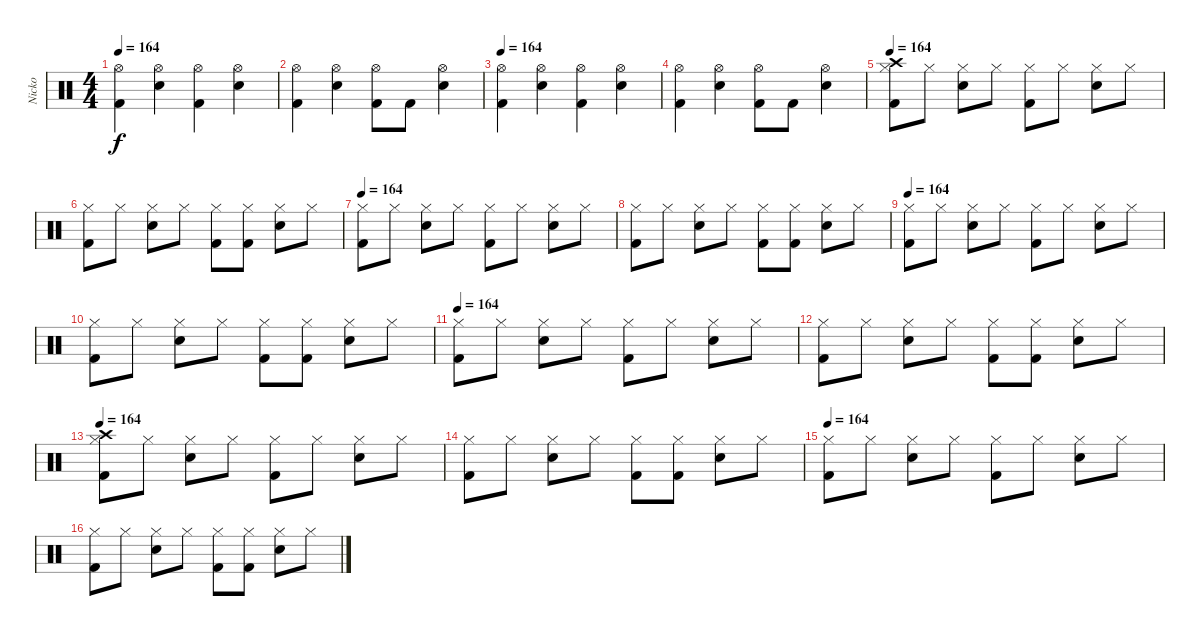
\track ("Nicko" "Nicko") {instrument percussion}
\staff {score}
\articulation defaults
\ts (4 4)
\tempo 164
\clef neutral
\ks c
("Hi-Hat (open)" "Kick (hit) 2").4{dy f} ("Hi-Hat (open)" "Snare (hit) 2").4 ("Hi-Hat (open)" "Kick (hit) 2").4 ("Hi-Hat (open)" "Snare (hit) 2").4 |
("Hi-Hat (open)" "Kick (hit) 2").4 ("Hi-Hat (open)" "Snare (hit) 2").4 ("Hi-Hat (open)" "Kick (hit) 2").8 "Kick (hit) 2".8 ("Hi-Hat (open)" "Snare (hit) 2").4 |
\tempo 164
("Hi-Hat (open)" "Kick (hit) 2").4 ("Hi-Hat (open)" "Snare (hit) 2").4 ("Hi-Hat (open)" "Kick (hit) 2").4 ("Hi-Hat (open)" "Snare (hit) 2").4 |
("Hi-Hat (open)" "Kick (hit) 2").4 ("Hi-Hat (open)" "Snare (hit) 2").4 ("Hi-Hat (open)" "Kick (hit) 2").8 "Kick (hit) 2".8 ("Hi-Hat (open)" "Snare (hit) 2").4 |
\tempo 164
("Hi-Hat (closed)" "Crash high (hit)" "Kick (hit) 2").8 "Hi-Hat (closed)".8 ("Hi-Hat (closed)" "Snare (hit) 2").8 "Hi-Hat (closed)".8 ("Hi-Hat (closed)" "Kick (hit) 2").8 "Hi-Hat (closed)".8 ("Hi-Hat (closed)" "Snare (hit) 2").8 "Hi-Hat (closed)".8 |
("Hi-Hat (closed)" "Kick (hit) 2").8 "Hi-Hat (closed)".8 ("Hi-Hat (closed)" "Snare (hit) 2").8 "Hi-Hat (closed)".8 ("Hi-Hat (closed)" "Kick (hit) 2").8 ("Hi-Hat (closed)" "Kick (hit) 2").8 ("Hi-Hat (closed)" "Snare (hit) 2").8 "Hi-Hat (closed)".8 |
\tempo 164
("Hi-Hat (closed)" "Kick (hit) 2").8 "Hi-Hat (closed)".8 ("Hi-Hat (closed)" "Snare (hit) 2").8 "Hi-Hat (closed)".8 ("Hi-Hat (closed)" "Kick (hit) 2").8 "Hi-Hat (closed)".8 ("Hi-Hat (closed)" "Snare (hit) 2").8 "Hi-Hat (closed)".8 |
("Hi-Hat (closed)" "Kick (hit) 2").8 "Hi-Hat (closed)".8 ("Hi-Hat (closed)" "Snare (hit) 2").8 "Hi-Hat (closed)".8 ("Hi-Hat (closed)" "Kick (hit) 2").8 ("Hi-Hat (closed)" "Kick (hit) 2").8 ("Hi-Hat (closed)" "Snare (hit) 2").8 "Hi-Hat (closed)".8 |
\tempo 164
("Hi-Hat (closed)" "Kick (hit) 2").8 "Hi-Hat (closed)".8 ("Hi-Hat (closed)" "Snare (hit) 2").8 "Hi-Hat (closed)".8 ("Hi-Hat (closed)" "Kick (hit) 2").8 "Hi-Hat (closed)".8 ("Hi-Hat (closed)" "Snare (hit) 2").8 "Hi-Hat (closed)".8 |
("Hi-Hat (closed)" "Kick (hit) 2").8 "Hi-Hat (closed)".8 ("Hi-Hat (closed)" "Snare (hit) 2").8 "Hi-Hat (closed)".8 ("Hi-Hat (closed)" "Kick (hit) 2").8 ("Hi-Hat (closed)" "Kick (hit) 2").8 ("Hi-Hat (closed)" "Snare (hit) 2").8 "Hi-Hat (closed)".8 |
\tempo 164
("Hi-Hat (closed)" "Kick (hit) 2").8 "Hi-Hat (closed)".8 ("Hi-Hat (closed)" "Snare (hit) 2").8 "Hi-Hat (closed)".8 ("Hi-Hat (closed)" "Kick (hit) 2").8 "Hi-Hat (closed)".8 ("Hi-Hat (closed)" "Snare (hit) 2").8 "Hi-Hat (closed)".8 |
("Hi-Hat (closed)" "Kick (hit) 2").8 "Hi-Hat (closed)".8 ("Hi-Hat (closed)" "Snare (hit) 2").8 "Hi-Hat (closed)".8 ("Hi-Hat (closed)" "Kick (hit) 2").8 ("Hi-Hat (closed)" "Kick (hit) 2").8 ("Hi-Hat (closed)" "Snare (hit) 2").8 "Hi-Hat (closed)".8 |
\tempo 164
("Hi-Hat (closed)" "Crash high (hit)" "Kick (hit) 2").8 "Hi-Hat (closed)".8 ("Hi-Hat (closed)" "Snare (hit) 2").8 "Hi-Hat (closed)".8 ("Hi-Hat (closed)" "Kick (hit) 2").8 "Hi-Hat (closed)".8 ("Hi-Hat (closed)" "Snare (hit) 2").8 "Hi-Hat (closed)".8 |
("Hi-Hat (closed)" "Kick (hit) 2").8 "Hi-Hat (closed)".8 ("Hi-Hat (closed)" "Snare (hit) 2").8 "Hi-Hat (closed)".8 ("Hi-Hat (closed)" "Kick (hit) 2").8 ("Hi-Hat (closed)" "Kick (hit) 2").8 ("Hi-Hat (closed)" "Snare (hit) 2").8 "Hi-Hat (closed)".8 |
\tempo 164
("Hi-Hat (closed)" "Kick (hit) 2").8 "Hi-Hat (closed)".8 ("Hi-Hat (closed)" "Snare (hit) 2").8 "Hi-Hat (closed)".8 ("Hi-Hat (closed)" "Kick (hit) 2").8 "Hi-Hat (closed)".8 ("Hi-Hat (closed)" "Snare (hit) 2").8 "Hi-Hat (closed)".8 |
("Hi-Hat (closed)" "Kick (hit) 2").8 "Hi-Hat (closed)".8 ("Hi-Hat (closed)" "Snare (hit) 2").8 "Hi-Hat (closed)".8 ("Hi-Hat (closed)" "Kick (hit) 2").8 ("Hi-Hat (closed)" "Kick (hit) 2").8 ("Hi-Hat (closed)" "Snare (hit) 2").8 "Hi-Hat (closed)".8
